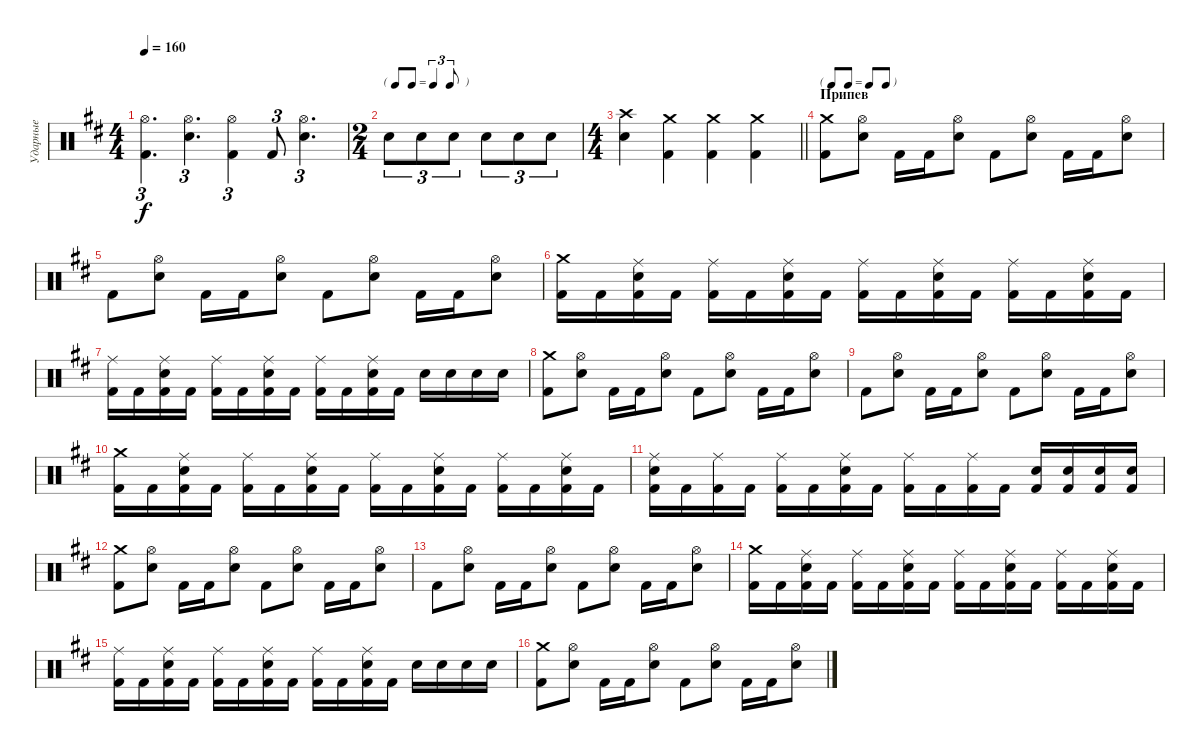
\track ("Ударные" "Ударные") {instrument percussion}
\staff {score}
\articulation defaults
\ts (4 4)
\tempo 160
\clef neutral
\ks bminor
("Hi-Hat (open)" "Kick (hit) 2").4{d tu (3 2) dy f} ("Hi-Hat (open)" "Snare (hit) 2").4{d tu (3 2)} ("Hi-Hat (open)" "Kick (hit) 2").4{tu (3 2)} "Kick (hit) 2".8{tu (3 2)} ("Hi-Hat (open)" "Snare (hit) 2").4{d tu (3 2)} |
\ts (2 4)
\tf triplet8th "Snare (hit) 2".8{tu (3 2)} "Snare (hit) 2".8{tu (3 2)} "Snare (hit) 2".8{tu (3 2)} "Snare (hit) 2".8{tu (3 2)} "Snare (hit) 2".8{tu (3 2)} "Snare (hit) 2".8{tu (3 2)}
|
\ts (4 4)
\barLineRight lightlight
("Crash high (hit)" "Snare (hit) 2").4 ("Crash medium (hit)" "Kick (hit) 2").4 ("Kick (hit) 2" "Crash medium (hit)").4 ("Kick (hit) 2" "Crash medium (hit)").4 |
\tf none
\section ("" "Припев")
("Crash medium (hit)" "Kick (hit) 2").8 ("Hi-Hat (open)" "Snare (hit) 2").8 "Kick (hit) 2".16 "Kick (hit) 2".16 ("Hi-Hat (open)" "Snare (hit) 2").8 "Kick (hit) 2".8 ("Hi-Hat (open)" "Snare (hit) 2").8 "Kick (hit) 2".16 "Kick (hit) 2".16 ("Hi-Hat (open)" "Snare (hit) 2").8 |
"Kick (hit) 2".8 ("Hi-Hat (open)" "Snare (hit) 2").8 "Kick (hit) 2".16 "Kick (hit) 2".16 ("Hi-Hat (open)" "Snare (hit) 2").8 "Kick (hit) 2".8 ("Hi-Hat (open)" "Snare (hit) 2").8 "Kick (hit) 2".16 "Kick (hit) 2".16 ("Hi-Hat (open)" "Snare (hit) 2").8 |
("Kick (hit) 2" "Crash medium (hit)").16 "Kick (hit) 2".16 ("Snare (hit) 2" "Kick (hit) 2" "Ride (middle)").16 "Kick (hit) 2".16 ("Kick (hit) 2" "Ride (middle)").16 "Kick (hit) 2".16 ("Snare (hit) 2" "Kick (hit) 2" "Ride (middle)").16 "Kick (hit) 2".16 ("Kick (hit) 2" "Ride (middle)").16 "Kick (hit) 2".16 ("Snare (hit) 2" "Kick (hit) 2" "Ride (middle)").16 "Kick (hit) 2".16 ("Kick (hit) 2" "Ride (middle)").16 "Kick (hit) 2".16 ("Snare (hit) 2" "Kick (hit) 2" "Ride (middle)").16 "Kick (hit) 2".16 |
("Kick (hit) 2" "Ride (middle)").16 "Kick (hit) 2".16 ("Snare (hit) 2" "Kick (hit) 2" "Ride (middle)").16 "Kick (hit) 2".16 ("Kick (hit) 2" "Ride (middle)").16 "Kick (hit) 2".16 ("Snare (hit) 2" "Kick (hit) 2" "Ride (middle)").16 "Kick (hit) 2".16 ("Kick (hit) 2" "Ride (middle)").16 "Kick (hit) 2".16 ("Snare (hit) 2" "Kick (hit) 2" "Ride (middle)").16 "Kick (hit) 2".16 "Snare (hit) 2".16 "Snare (hit) 2".16 "Snare (hit) 2".16 "Snare (hit) 2".16 |
("Crash medium (hit)" "Kick (hit) 2").8 ("Hi-Hat (open)" "Snare (hit) 2").8 "Kick (hit) 2".16 "Kick (hit) 2".16 ("Hi-Hat (open)" "Snare (hit) 2").8 "Kick (hit) 2".8 ("Hi-Hat (open)" "Snare (hit) 2").8 "Kick (hit) 2".16 "Kick (hit) 2".16 ("Hi-Hat (open)" "Snare (hit) 2").8 |
"Kick (hit) 2".8 ("Hi-Hat (open)" "Snare (hit) 2").8 "Kick (hit) 2".16 "Kick (hit) 2".16 ("Hi-Hat (open)" "Snare (hit) 2").8 "Kick (hit) 2".8 ("Hi-Hat (open)" "Snare (hit) 2").8 "Kick (hit) 2".16 "Kick (hit) 2".16 ("Hi-Hat (open)" "Snare (hit) 2").8 |
("Kick (hit) 2" "Crash medium (hit)").16 "Kick (hit) 2".16 ("Snare (hit) 2" "Kick (hit) 2" "Ride (middle)").16 "Kick (hit) 2".16 ("Kick (hit) 2" "Ride (middle)").16 "Kick (hit) 2".16 ("Snare (hit) 2" "Kick (hit) 2" "Ride (middle)").16 "Kick (hit) 2".16 ("Kick (hit) 2" "Ride (middle)").16 "Kick (hit) 2".16 ("Snare (hit) 2" "Kick (hit) 2" "Ride (middle)").16 "Kick (hit) 2".16 ("Kick (hit) 2" "Ride (middle)").16 "Kick (hit) 2".16 ("Snare (hit) 2" "Kick (hit) 2" "Ride (middle)").16 "Kick (hit) 2".16 |
("Snare (hit) 2" "Kick (hit) 2" "Ride (middle)").16 "Kick (hit) 2".16 ("Kick (hit) 2" "Ride (middle)").16 "Kick (hit) 2".16 ("Kick (hit) 2" "Ride (middle)").16 "Kick (hit) 2".16 ("Snare (hit) 2" "Kick (hit) 2" "Ride (middle)").16 "Kick (hit) 2".16 ("Kick (hit) 2" "Ride (middle)").16 "Kick (hit) 2".16 ("Kick (hit) 2" "Ride (middle)").16 "Kick (hit) 2".16 ("Kick (hit) 2" "Snare (hit) 2").16 ("Kick (hit) 2" "Snare (hit) 2").16 ("Kick (hit) 2" "Snare (hit) 2").16 ("Kick (hit) 2" "Snare (hit) 2").16 |
("Crash medium (hit)" "Kick (hit) 2").8 ("Hi-Hat (open)" "Snare (hit) 2").8 "Kick (hit) 2".16 "Kick (hit) 2".16 ("Hi-Hat (open)" "Snare (hit) 2").8 "Kick (hit) 2".8 ("Hi-Hat (open)" "Snare (hit) 2").8 "Kick (hit) 2".16 "Kick (hit) 2".16 ("Hi-Hat (open)" "Snare (hit) 2").8 |
"Kick (hit) 2".8 ("Hi-Hat (open)" "Snare (hit) 2").8 "Kick (hit) 2".16 "Kick (hit) 2".16 ("Hi-Hat (open)" "Snare (hit) 2").8 "Kick (hit) 2".8 ("Hi-Hat (open)" "Snare (hit) 2").8 "Kick (hit) 2".16 "Kick (hit) 2".16 ("Hi-Hat (open)" "Snare (hit) 2").8 |
("Kick (hit) 2" "Crash medium (hit)").16 "Kick (hit) 2".16 ("Snare (hit) 2" "Kick (hit) 2" "Ride (middle)").16 "Kick (hit) 2".16 ("Kick (hit) 2" "Ride (middle)").16 "Kick (hit) 2".16 ("Snare (hit) 2" "Kick (hit) 2" "Ride (middle)").16 "Kick (hit) 2".16 ("Kick (hit) 2" "Ride (middle)").16 "Kick (hit) 2".16 ("Snare (hit) 2" "Kick (hit) 2" "Ride (middle)").16 "Kick (hit) 2".16 ("Kick (hit) 2" "Ride (middle)").16 "Kick (hit) 2".16 ("Snare (hit) 2" "Kick (hit) 2" "Ride (middle)").16 "Kick (hit) 2".16 |
("Kick (hit) 2" "Ride (middle)").16 "Kick (hit) 2".16 ("Snare (hit) 2" "Kick (hit) 2" "Ride (middle)").16 "Kick (hit) 2".16 ("Kick (hit) 2" "Ride (middle)").16 "Kick (hit) 2".16 ("Snare (hit) 2" "Kick (hit) 2" "Ride (middle)").16 "Kick (hit) 2".16 ("Kick (hit) 2" "Ride (middle)").16 "Kick (hit) 2".16 ("Snare (hit) 2" "Kick (hit) 2" "Ride (middle)").16 "Kick (hit) 2".16 "Snare (hit) 2".16 "Snare (hit) 2".16 "Snare (hit) 2".16 "Snare (hit) 2".16 |
("Crash medium (hit)" "Kick (hit) 2").8 ("Hi-Hat (open)" "Snare (hit) 2").8 "Kick (hit) 2".16 "Kick (hit) 2".16 ("Hi-Hat (open)" "Snare (hit) 2").8 "Kick (hit) 2".8 ("Hi-Hat (open)" "Snare (hit) 2").8 "Kick (hit) 2".16 "Kick (hit) 2".16 ("Hi-Hat (open)" "Snare (hit) 2").8
